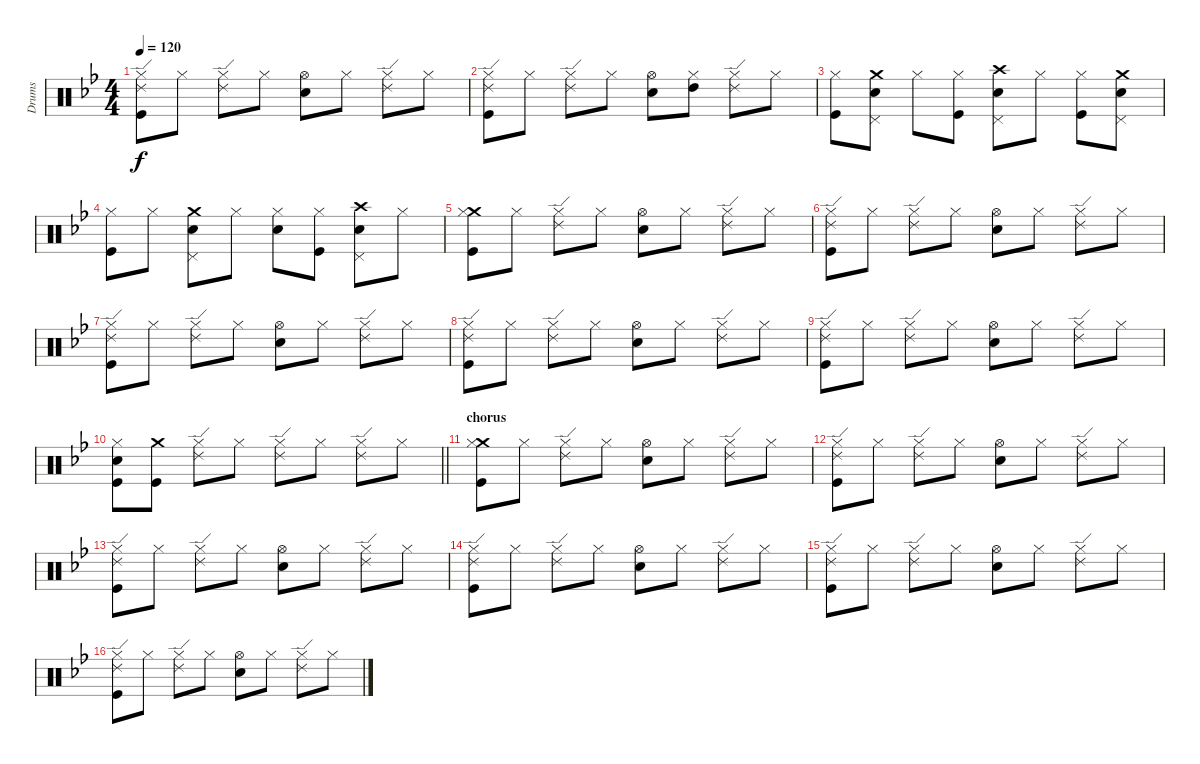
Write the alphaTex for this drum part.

\track ("Drums" "Drums") {instrument percussion}
\staff {score}
\articulation defaults
\ts (4 4)
\tempo 120
\clef neutral
\ks gminor
("Hi-Hat (closed)" "Ride (edge) 2" "Kick (hit)").8{dy f} "Hi-Hat (closed)".8 ("Hi-Hat (closed)" "Ride (edge) 2").8 "Hi-Hat (closed)".8 ("Hi-Hat (open)" "Electric Snare (hit)").8 "Hi-Hat (closed)".8 ("Hi-Hat (closed)" "Ride (edge) 2").8 "Hi-Hat (closed)".8 |
("Hi-Hat (closed)" "Ride (edge) 2" "Kick (hit)").8 "Hi-Hat (closed)".8 ("Hi-Hat (closed)" "Ride (edge) 2").8 "Hi-Hat (closed)".8 ("Hi-Hat (open)" "Electric Snare (hit)").8 ("Hi-Hat (closed)" "High Tom (hit)").8 ("Hi-Hat (closed)" "Ride (edge) 2").8 "Hi-Hat (closed)".8 |
("Hi-Hat (closed)" "Kick (hit)").8 ("Crash medium (hit)" "Pedal Hi-Hat (hit)" "Electric Snare (hit)").8 "Hi-Hat (closed)".8 ("Hi-Hat (closed)" "Kick (hit)").8 ("Crash high (hit)" "Pedal Hi-Hat (hit)" "Electric Snare (hit)").8 "Hi-Hat (closed)".8 ("Hi-Hat (closed)" "Kick (hit)").8 ("Crash medium (hit)" "Pedal Hi-Hat (hit)" "Electric Snare (hit)").8 |
("Hi-Hat (closed)" "Kick (hit)").8 "Hi-Hat (closed)".8 ("Crash medium (hit)" "Pedal Hi-Hat (hit)" "Electric Snare (hit)").8 "Hi-Hat (closed)".8 ("Hi-Hat (closed)" "Electric Snare (hit)").8 ("Hi-Hat (closed)" "Kick (hit)").8 ("Crash high (hit)" "Pedal Hi-Hat (hit)" "Electric Snare (hit)").8 "Hi-Hat (closed)".8 |
("Crash medium (hit)" "Hi-Hat (closed)" "Kick (hit)").8 "Hi-Hat (closed)".8 ("Hi-Hat (closed)" "Ride (edge) 2").8 "Hi-Hat (closed)".8 ("Hi-Hat (open)" "Electric Snare (hit)").8 "Hi-Hat (closed)".8 ("Hi-Hat (closed)" "Ride (edge) 2").8 "Hi-Hat (closed)".8 |
("Hi-Hat (closed)" "Ride (edge) 2" "Kick (hit)").8 "Hi-Hat (closed)".8 ("Hi-Hat (closed)" "Ride (edge) 2").8 "Hi-Hat (closed)".8 ("Hi-Hat (open)" "Electric Snare (hit)").8 "Hi-Hat (closed)".8 ("Hi-Hat (closed)" "Ride (edge) 2").8 "Hi-Hat (closed)".8 |
("Hi-Hat (closed)" "Ride (edge) 2" "Kick (hit)").8 "Hi-Hat (closed)".8 ("Hi-Hat (closed)" "Ride (edge) 2").8 "Hi-Hat (closed)".8 ("Hi-Hat (open)" "Electric Snare (hit)").8 "Hi-Hat (closed)".8 ("Hi-Hat (closed)" "Ride (edge) 2").8 "Hi-Hat (closed)".8 |
("Hi-Hat (closed)" "Ride (edge) 2" "Kick (hit)").8 "Hi-Hat (closed)".8 ("Hi-Hat (closed)" "Ride (edge) 2").8 "Hi-Hat (closed)".8 ("Hi-Hat (open)" "Electric Snare (hit)").8 "Hi-Hat (closed)".8 ("Hi-Hat (closed)" "Ride (edge) 2").8 "Hi-Hat (closed)".8 |
("Hi-Hat (closed)" "Ride (edge) 2" "Kick (hit)").8 "Hi-Hat (closed)".8 ("Hi-Hat (closed)" "Ride (edge) 2").8 "Hi-Hat (closed)".8 ("Hi-Hat (open)" "Electric Snare (hit)").8 "Hi-Hat (closed)".8 ("Hi-Hat (closed)" "Ride (edge) 2").8 "Hi-Hat (closed)".8 |
\barLineRight lightlight
("Hi-Hat (closed)" "Electric Snare (hit)" "Kick (hit)").8 ("Crash medium (hit)" "Kick (hit)").8 ("Hi-Hat (closed)" "Ride (edge) 2").8 "Hi-Hat (closed)".8 ("Hi-Hat (closed)" "Ride (edge) 2").8 "Hi-Hat (closed)".8 ("Hi-Hat (closed)" "Ride (edge) 2").8 "Hi-Hat (closed)".8 |
\section ("" "chorus ")
("Crash medium (hit)" "Hi-Hat (closed)" "Kick (hit)").8 "Hi-Hat (closed)".8 ("Hi-Hat (closed)" "Ride (edge) 2").8 "Hi-Hat (closed)".8 ("Hi-Hat (open)" "Electric Snare (hit)").8 "Hi-Hat (closed)".8 ("Hi-Hat (closed)" "Ride (edge) 2").8 "Hi-Hat (closed)".8 |
("Hi-Hat (closed)" "Ride (edge) 2" "Kick (hit)").8 "Hi-Hat (closed)".8 ("Hi-Hat (closed)" "Ride (edge) 2").8 "Hi-Hat (closed)".8 ("Hi-Hat (open)" "Electric Snare (hit)").8 "Hi-Hat (closed)".8 ("Hi-Hat (closed)" "Ride (edge) 2").8 "Hi-Hat (closed)".8 |
("Hi-Hat (closed)" "Ride (edge) 2" "Kick (hit)").8 "Hi-Hat (closed)".8 ("Hi-Hat (closed)" "Ride (edge) 2").8 "Hi-Hat (closed)".8 ("Hi-Hat (open)" "Electric Snare (hit)").8 "Hi-Hat (closed)".8 ("Hi-Hat (closed)" "Ride (edge) 2").8 "Hi-Hat (closed)".8 |
("Hi-Hat (closed)" "Ride (edge) 2" "Kick (hit)").8 "Hi-Hat (closed)".8 ("Hi-Hat (closed)" "Ride (edge) 2").8 "Hi-Hat (closed)".8 ("Hi-Hat (open)" "Electric Snare (hit)").8 "Hi-Hat (closed)".8 ("Hi-Hat (closed)" "Ride (edge) 2").8 "Hi-Hat (closed)".8 |
("Hi-Hat (closed)" "Ride (edge) 2" "Kick (hit)").8 "Hi-Hat (closed)".8 ("Hi-Hat (closed)" "Ride (edge) 2").8 "Hi-Hat (closed)".8 ("Hi-Hat (open)" "Electric Snare (hit)").8 "Hi-Hat (closed)".8 ("Hi-Hat (closed)" "Ride (edge) 2").8 "Hi-Hat (closed)".8 |
("Hi-Hat (closed)" "Ride (edge) 2" "Kick (hit)").8 "Hi-Hat (closed)".8 ("Hi-Hat (closed)" "Ride (edge) 2").8 "Hi-Hat (closed)".8 ("Hi-Hat (open)" "Electric Snare (hit)").8 "Hi-Hat (closed)".8 ("Hi-Hat (closed)" "Ride (edge) 2").8 "Hi-Hat (closed)".8
